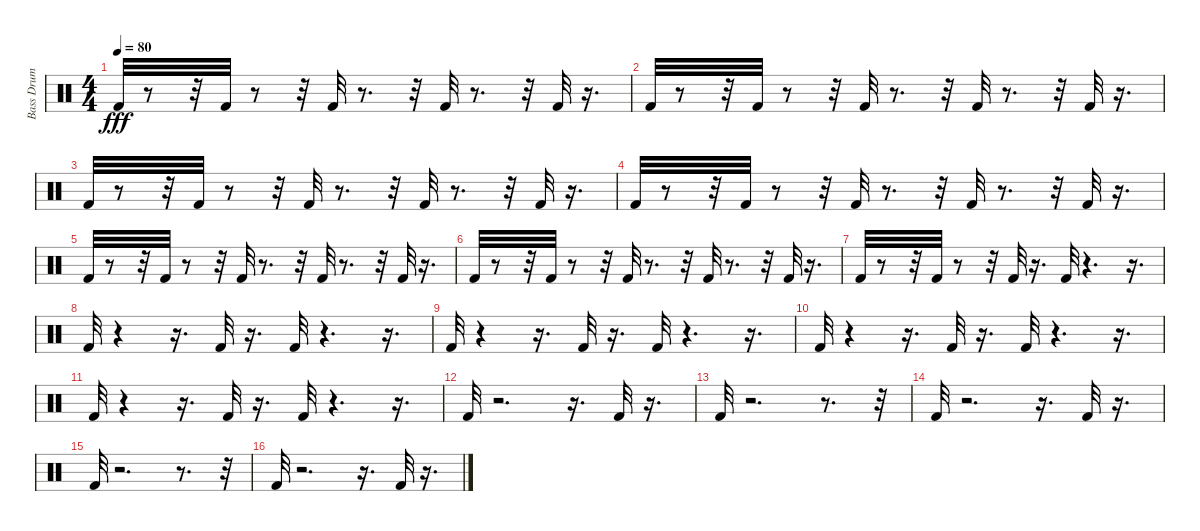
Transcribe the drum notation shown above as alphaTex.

\track ("Bass Drum" "Bass Drum") {instrument percussion}
\staff {score}
\articulation defaults
\ts (4 4)
\tempo 80
\clef neutral
\ks c "Kick (hit) 2".32{dy fff}
r.8 r.32 "Kick (hit) 2".32 r.8 r.32 "Kick (hit) 2".32 r.8{d} r.32 "Kick (hit) 2".32 r.8{d} r.32 "Kick (hit) 2".32 r.16{d} |
"Kick (hit) 2".32 r.8 r.32 "Kick (hit) 2".32 r.8 r.32 "Kick (hit) 2".32 r.8{d} r.32 "Kick (hit) 2".32 r.8{d} r.32 "Kick (hit) 2".32 r.16{d} |
"Kick (hit) 2".32 r.8 r.32 "Kick (hit) 2".32 r.8 r.32 "Kick (hit) 2".32 r.8{d} r.32 "Kick (hit) 2".32 r.8{d} r.32 "Kick (hit) 2".32 r.16{d} |
"Kick (hit) 2".32 r.8 r.32 "Kick (hit) 2".32 r.8 r.32 "Kick (hit) 2".32 r.8{d} r.32 "Kick (hit) 2".32 r.8{d} r.32 "Kick (hit) 2".32 r.16{d} |
"Kick (hit) 2".32 r.8 r.32 "Kick (hit) 2".32 r.8 r.32 "Kick (hit) 2".32 r.8{d} r.32 "Kick (hit) 2".32 r.8{d} r.32 "Kick (hit) 2".32 r.16{d} |
"Kick (hit) 2".32 r.8 r.32 "Kick (hit) 2".32 r.8 r.32 "Kick (hit) 2".32 r.8{d} r.32 "Kick (hit) 2".32 r.8{d} r.32 "Kick (hit) 2".32 r.16{d} |
"Kick (hit) 2".32 r.8 r.32 "Kick (hit) 2".32 r.8 r.32 "Kick (hit) 2".32 r.16{d} "Kick (hit) 2".32 r.4{d} r.16{d} |
"Kick (hit) 2".32 r.4 r.16{d} "Kick (hit) 2".32 r.16{d} "Kick (hit) 2".32 r.4{d} r.16{d} |
"Kick (hit) 2".32 r.4 r.16{d} "Kick (hit) 2".32 r.16{d} "Kick (hit) 2".32 r.4{d} r.16{d} |
"Kick (hit) 2".32 r.4 r.16{d} "Kick (hit) 2".32 r.16{d} "Kick (hit) 2".32 r.4{d} r.16{d} |
"Kick (hit) 2".32 r.4 r.16{d} "Kick (hit) 2".32 r.16{d} "Kick (hit) 2".32 r.4{d} r.16{d} |
"Kick (hit) 2".32 r.2{d} r.16{d} "Kick (hit) 2".32 r.16{d} |
"Kick (hit) 2".32 r.2{d} r.8{d} r.32 |
"Kick (hit) 2".32 r.2{d} r.16{d} "Kick (hit) 2".32 r.16{d} |
"Kick (hit) 2".32 r.2{d} r.8{d} r.32 |
"Kick (hit) 2".32 r.2{d} r.16{d} "Kick (hit) 2".32 r.16{d}
